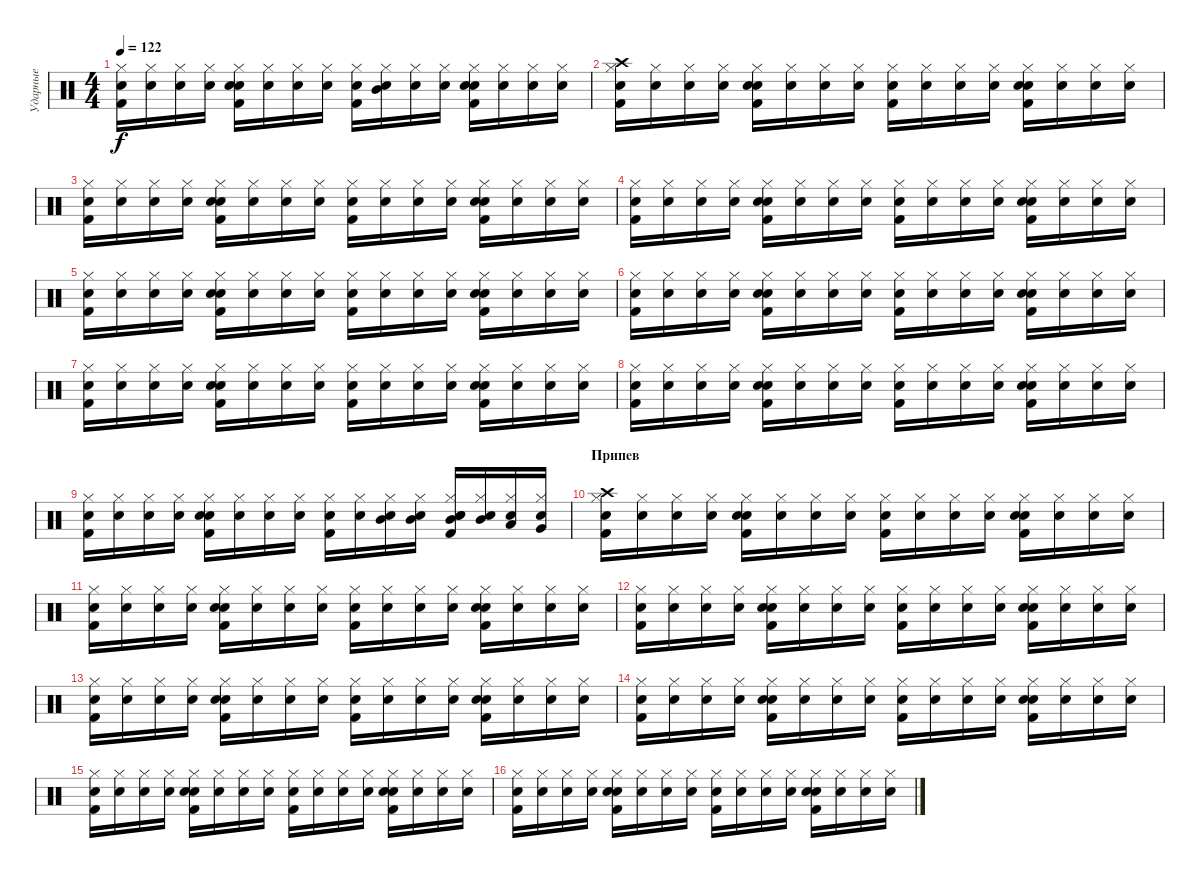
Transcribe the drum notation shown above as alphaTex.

\track ("Ударные" "Ударные") {instrument percussion}
\staff {score}
\articulation defaults
\ts (4 4)
\tempo 122
\clef neutral
\ks c
("Snare (hit)" "Kick (hit) 2" "Hi-Hat (closed)").16{dy f} ("Snare (hit)" "Hi-Hat (closed)").16 ("Snare (hit)" "Hi-Hat (closed)").16 ("Snare (hit)" "Hi-Hat (closed)").16 ("Snare (hit)" "Kick (hit) 2" "Snare (hit) 2" "Hi-Hat (closed)").16 ("Snare (hit)" "Hi-Hat (closed)").16 ("Snare (hit)" "Hi-Hat (closed)").16 ("Snare (hit)" "Hi-Hat (closed)").16 ("Snare (hit)" "Kick (hit) 2" "Hi-Hat (closed)").16 ("Snare (hit)" "Hi-Hat (closed)" "Mid Tom (hit)").16 ("Snare (hit)" "Hi-Hat (closed)").16 ("Snare (hit)" "Hi-Hat (closed)").16 ("Snare (hit)" "Kick (hit) 2" "Snare (hit) 2" "Hi-Hat (closed)").16 ("Snare (hit)" "Hi-Hat (closed)").16 ("Snare (hit)" "Hi-Hat (closed)").16 ("Snare (hit)" "Hi-Hat (closed)").16 |
("Snare (hit)" "Crash high (hit)" "Kick (hit) 2" "Hi-Hat (closed)").16 ("Snare (hit)" "Hi-Hat (closed)").16 ("Snare (hit)" "Hi-Hat (closed)").16 ("Snare (hit)" "Hi-Hat (closed)").16 ("Snare (hit)" "Kick (hit) 2" "Snare (hit) 2" "Hi-Hat (closed)").16 ("Snare (hit)" "Hi-Hat (closed)").16 ("Snare (hit)" "Hi-Hat (closed)").16 ("Snare (hit)" "Hi-Hat (closed)").16 ("Snare (hit)" "Kick (hit) 2" "Hi-Hat (closed)").16 ("Snare (hit)" "Hi-Hat (closed)").16 ("Snare (hit)" "Hi-Hat (closed)").16 ("Snare (hit)" "Hi-Hat (closed)").16 ("Snare (hit)" "Kick (hit) 2" "Snare (hit) 2" "Hi-Hat (closed)").16 ("Snare (hit)" "Hi-Hat (closed)").16 ("Snare (hit)" "Hi-Hat (closed)").16 ("Snare (hit)" "Hi-Hat (closed)").16 |
("Snare (hit)" "Kick (hit) 2" "Hi-Hat (closed)").16 ("Snare (hit)" "Hi-Hat (closed)").16 ("Snare (hit)" "Hi-Hat (closed)").16 ("Snare (hit)" "Hi-Hat (closed)").16 ("Snare (hit)" "Kick (hit) 2" "Snare (hit) 2" "Hi-Hat (closed)").16 ("Snare (hit)" "Hi-Hat (closed)").16 ("Snare (hit)" "Hi-Hat (closed)").16 ("Snare (hit)" "Hi-Hat (closed)").16 ("Snare (hit)" "Kick (hit) 2" "Hi-Hat (closed)").16 ("Snare (hit)" "Hi-Hat (closed)").16 ("Snare (hit)" "Hi-Hat (closed)").16 ("Snare (hit)" "Hi-Hat (closed)").16 ("Snare (hit)" "Kick (hit) 2" "Snare (hit) 2" "Hi-Hat (closed)").16 ("Snare (hit)" "Hi-Hat (closed)").16 ("Snare (hit)" "Hi-Hat (closed)").16 ("Snare (hit)" "Hi-Hat (closed)").16 |
("Snare (hit)" "Kick (hit) 2" "Hi-Hat (closed)").16 ("Snare (hit)" "Hi-Hat (closed)").16 ("Snare (hit)" "Hi-Hat (closed)").16 ("Snare (hit)" "Hi-Hat (closed)").16 ("Snare (hit)" "Kick (hit) 2" "Snare (hit) 2" "Hi-Hat (closed)").16 ("Snare (hit)" "Hi-Hat (closed)").16 ("Snare (hit)" "Hi-Hat (closed)").16 ("Snare (hit)" "Hi-Hat (closed)").16 ("Snare (hit)" "Kick (hit) 2" "Hi-Hat (closed)").16 ("Snare (hit)" "Hi-Hat (closed)").16 ("Snare (hit)" "Hi-Hat (closed)").16 ("Snare (hit)" "Hi-Hat (closed)").16 ("Snare (hit)" "Kick (hit) 2" "Snare (hit) 2" "Hi-Hat (closed)").16 ("Snare (hit)" "Hi-Hat (closed)").16 ("Snare (hit)" "Hi-Hat (closed)").16 ("Snare (hit)" "Hi-Hat (closed)").16 |
("Snare (hit)" "Kick (hit) 2" "Hi-Hat (closed)").16 ("Snare (hit)" "Hi-Hat (closed)").16 ("Snare (hit)" "Hi-Hat (closed)").16 ("Snare (hit)" "Hi-Hat (closed)").16 ("Snare (hit)" "Kick (hit) 2" "Snare (hit) 2" "Hi-Hat (closed)").16 ("Snare (hit)" "Hi-Hat (closed)").16 ("Snare (hit)" "Hi-Hat (closed)").16 ("Snare (hit)" "Hi-Hat (closed)").16 ("Snare (hit)" "Kick (hit) 2" "Hi-Hat (closed)").16 ("Snare (hit)" "Hi-Hat (closed)").16 ("Snare (hit)" "Hi-Hat (closed)").16 ("Snare (hit)" "Hi-Hat (closed)").16 ("Snare (hit)" "Kick (hit) 2" "Snare (hit) 2" "Hi-Hat (closed)").16 ("Snare (hit)" "Hi-Hat (closed)").16 ("Snare (hit)" "Hi-Hat (closed)").16 ("Snare (hit)" "Hi-Hat (closed)").16 |
("Snare (hit)" "Kick (hit) 2" "Hi-Hat (closed)").16 ("Snare (hit)" "Hi-Hat (closed)").16 ("Snare (hit)" "Hi-Hat (closed)").16 ("Snare (hit)" "Hi-Hat (closed)").16 ("Snare (hit)" "Kick (hit) 2" "Snare (hit) 2" "Hi-Hat (closed)").16 ("Snare (hit)" "Hi-Hat (closed)").16 ("Snare (hit)" "Hi-Hat (closed)").16 ("Snare (hit)" "Hi-Hat (closed)").16 ("Snare (hit)" "Kick (hit) 2" "Hi-Hat (closed)").16 ("Snare (hit)" "Hi-Hat (closed)").16 ("Snare (hit)" "Hi-Hat (closed)").16 ("Snare (hit)" "Hi-Hat (closed)").16 ("Snare (hit)" "Kick (hit) 2" "Snare (hit) 2" "Hi-Hat (closed)").16 ("Snare (hit)" "Hi-Hat (closed)").16 ("Snare (hit)" "Hi-Hat (closed)").16 ("Snare (hit)" "Hi-Hat (closed)").16 |
("Snare (hit)" "Kick (hit) 2" "Hi-Hat (closed)").16 ("Snare (hit)" "Hi-Hat (closed)").16 ("Snare (hit)" "Hi-Hat (closed)").16 ("Snare (hit)" "Hi-Hat (closed)").16 ("Snare (hit)" "Kick (hit) 2" "Snare (hit) 2" "Hi-Hat (closed)").16 ("Snare (hit)" "Hi-Hat (closed)").16 ("Snare (hit)" "Hi-Hat (closed)").16 ("Snare (hit)" "Hi-Hat (closed)").16 ("Snare (hit)" "Kick (hit) 2" "Hi-Hat (closed)").16 ("Snare (hit)" "Hi-Hat (closed)").16 ("Snare (hit)" "Hi-Hat (closed)").16 ("Snare (hit)" "Hi-Hat (closed)").16 ("Snare (hit)" "Kick (hit) 2" "Snare (hit) 2" "Hi-Hat (closed)").16 ("Snare (hit)" "Hi-Hat (closed)").16 ("Snare (hit)" "Hi-Hat (closed)").16 ("Snare (hit)" "Hi-Hat (closed)").16 |
("Snare (hit)" "Kick (hit) 2" "Hi-Hat (closed)").16 ("Snare (hit)" "Hi-Hat (closed)").16 ("Snare (hit)" "Hi-Hat (closed)").16 ("Snare (hit)" "Hi-Hat (closed)").16 ("Snare (hit)" "Kick (hit) 2" "Snare (hit) 2" "Hi-Hat (closed)").16 ("Snare (hit)" "Hi-Hat (closed)").16 ("Snare (hit)" "Hi-Hat (closed)").16 ("Snare (hit)" "Hi-Hat (closed)").16 ("Snare (hit)" "Kick (hit) 2" "Hi-Hat (closed)").16 ("Snare (hit)" "Hi-Hat (closed)").16 ("Snare (hit)" "Hi-Hat (closed)").16 ("Snare (hit)" "Hi-Hat (closed)").16 ("Snare (hit)" "Kick (hit) 2" "Snare (hit) 2" "Hi-Hat (closed)").16 ("Snare (hit)" "Hi-Hat (closed)").16 ("Snare (hit)" "Hi-Hat (closed)").16 ("Snare (hit)" "Hi-Hat (closed)").16 |
("Snare (hit)" "Kick (hit) 2" "Hi-Hat (closed)").16 ("Snare (hit)" "Hi-Hat (closed)").16 ("Snare (hit)" "Hi-Hat (closed)").16 ("Snare (hit)" "Hi-Hat (closed)").16 ("Snare (hit)" "Kick (hit) 2" "Snare (hit) 2" "Hi-Hat (closed)").16 ("Snare (hit)" "Hi-Hat (closed)").16 ("Snare (hit)" "Hi-Hat (closed)").16 ("Snare (hit)" "Hi-Hat (closed)").16 ("Snare (hit)" "Kick (hit) 2" "Hi-Hat (closed)").16 ("Snare (hit)" "Hi-Hat (closed)").16 ("Snare (hit)" "Mid Tom (hit)" "Hi-Hat (closed)").16 ("Snare (hit)" "Hi-Hat (closed)" "Mid Tom (hit)").16 ("Snare (hit)" "Kick (hit) 2" "Snare (hit) 2" "Hi-Hat (closed)" "Mid Tom (hit)").16 ("Snare (hit)" "Hi-Hat (closed)" "Mid Tom (hit)").16 ("Snare (hit)" "Hi-Hat (closed)" "Low Tom (hit)").16 ("Snare (hit)" "Hi-Hat (closed)" "Very Low Tom (hit)").16 |
\section ("" "Припев")
("Snare (hit)" "Crash high (hit)" "Kick (hit) 2" "Hi-Hat (closed)").16 ("Snare (hit)" "Hi-Hat (closed)").16 ("Snare (hit)" "Hi-Hat (closed)").16 ("Snare (hit)" "Hi-Hat (closed)").16 ("Snare (hit)" "Kick (hit) 2" "Snare (hit) 2" "Hi-Hat (closed)").16 ("Snare (hit)" "Hi-Hat (closed)").16 ("Snare (hit)" "Hi-Hat (closed)").16 ("Snare (hit)" "Hi-Hat (closed)").16 ("Snare (hit)" "Kick (hit) 2" "Hi-Hat (closed)").16 ("Snare (hit)" "Hi-Hat (closed)").16 ("Snare (hit)" "Hi-Hat (closed)").16 ("Snare (hit)" "Hi-Hat (closed)").16 ("Snare (hit)" "Kick (hit) 2" "Snare (hit) 2" "Hi-Hat (closed)").16 ("Snare (hit)" "Hi-Hat (closed)").16 ("Snare (hit)" "Hi-Hat (closed)").16 ("Snare (hit)" "Hi-Hat (closed)").16 |
("Snare (hit)" "Kick (hit) 2" "Hi-Hat (closed)").16 ("Snare (hit)" "Hi-Hat (closed)").16 ("Snare (hit)" "Hi-Hat (closed)").16 ("Snare (hit)" "Hi-Hat (closed)").16 ("Snare (hit)" "Kick (hit) 2" "Snare (hit) 2" "Hi-Hat (closed)").16 ("Snare (hit)" "Hi-Hat (closed)").16 ("Snare (hit)" "Hi-Hat (closed)").16 ("Snare (hit)" "Hi-Hat (closed)").16 ("Snare (hit)" "Kick (hit) 2" "Hi-Hat (closed)").16 ("Snare (hit)" "Hi-Hat (closed)").16 ("Snare (hit)" "Hi-Hat (closed)").16 ("Snare (hit)" "Hi-Hat (closed)").16 ("Snare (hit)" "Kick (hit) 2" "Snare (hit) 2" "Hi-Hat (closed)").16 ("Snare (hit)" "Hi-Hat (closed)").16 ("Snare (hit)" "Hi-Hat (closed)").16 ("Snare (hit)" "Hi-Hat (closed)").16 |
("Snare (hit)" "Kick (hit) 2" "Hi-Hat (closed)").16 ("Snare (hit)" "Hi-Hat (closed)").16 ("Snare (hit)" "Hi-Hat (closed)").16 ("Snare (hit)" "Hi-Hat (closed)").16 ("Snare (hit)" "Kick (hit) 2" "Snare (hit) 2" "Hi-Hat (closed)").16 ("Snare (hit)" "Hi-Hat (closed)").16 ("Snare (hit)" "Hi-Hat (closed)").16 ("Snare (hit)" "Hi-Hat (closed)").16 ("Snare (hit)" "Kick (hit) 2" "Hi-Hat (closed)").16 ("Snare (hit)" "Hi-Hat (closed)").16 ("Snare (hit)" "Hi-Hat (closed)").16 ("Snare (hit)" "Hi-Hat (closed)").16 ("Snare (hit)" "Kick (hit) 2" "Snare (hit) 2" "Hi-Hat (closed)").16 ("Snare (hit)" "Hi-Hat (closed)").16 ("Snare (hit)" "Hi-Hat (closed)").16 ("Snare (hit)" "Hi-Hat (closed)").16 |
("Snare (hit)" "Kick (hit) 2" "Hi-Hat (closed)").16 ("Snare (hit)" "Hi-Hat (closed)").16 ("Snare (hit)" "Hi-Hat (closed)").16 ("Snare (hit)" "Hi-Hat (closed)").16 ("Snare (hit)" "Kick (hit) 2" "Snare (hit) 2" "Hi-Hat (closed)").16 ("Snare (hit)" "Hi-Hat (closed)").16 ("Snare (hit)" "Hi-Hat (closed)").16 ("Snare (hit)" "Hi-Hat (closed)").16 ("Snare (hit)" "Kick (hit) 2" "Hi-Hat (closed)").16 ("Snare (hit)" "Hi-Hat (closed)").16 ("Snare (hit)" "Hi-Hat (closed)").16 ("Snare (hit)" "Hi-Hat (closed)").16 ("Snare (hit)" "Kick (hit) 2" "Snare (hit) 2" "Hi-Hat (closed)").16 ("Snare (hit)" "Hi-Hat (closed)").16 ("Snare (hit)" "Hi-Hat (closed)").16 ("Snare (hit)" "Hi-Hat (closed)").16 |
("Snare (hit)" "Kick (hit) 2" "Hi-Hat (closed)").16 ("Snare (hit)" "Hi-Hat (closed)").16 ("Snare (hit)" "Hi-Hat (closed)").16 ("Snare (hit)" "Hi-Hat (closed)").16 ("Snare (hit)" "Kick (hit) 2" "Snare (hit) 2" "Hi-Hat (closed)").16 ("Snare (hit)" "Hi-Hat (closed)").16 ("Snare (hit)" "Hi-Hat (closed)").16 ("Snare (hit)" "Hi-Hat (closed)").16 ("Snare (hit)" "Kick (hit) 2" "Hi-Hat (closed)").16 ("Snare (hit)" "Hi-Hat (closed)").16 ("Snare (hit)" "Hi-Hat (closed)").16 ("Snare (hit)" "Hi-Hat (closed)").16 ("Snare (hit)" "Kick (hit) 2" "Snare (hit) 2" "Hi-Hat (closed)").16 ("Snare (hit)" "Hi-Hat (closed)").16 ("Snare (hit)" "Hi-Hat (closed)").16 ("Snare (hit)" "Hi-Hat (closed)").16 |
("Snare (hit)" "Kick (hit) 2" "Hi-Hat (closed)").16 ("Snare (hit)" "Hi-Hat (closed)").16 ("Snare (hit)" "Hi-Hat (closed)").16 ("Snare (hit)" "Hi-Hat (closed)").16 ("Snare (hit)" "Kick (hit) 2" "Snare (hit) 2" "Hi-Hat (closed)").16 ("Snare (hit)" "Hi-Hat (closed)").16 ("Snare (hit)" "Hi-Hat (closed)").16 ("Snare (hit)" "Hi-Hat (closed)").16 ("Snare (hit)" "Kick (hit) 2" "Hi-Hat (closed)").16 ("Snare (hit)" "Hi-Hat (closed)").16 ("Snare (hit)" "Hi-Hat (closed)").16 ("Snare (hit)" "Hi-Hat (closed)").16 ("Snare (hit)" "Kick (hit) 2" "Snare (hit) 2" "Hi-Hat (closed)").16 ("Snare (hit)" "Hi-Hat (closed)").16 ("Snare (hit)" "Hi-Hat (closed)").16 ("Snare (hit)" "Hi-Hat (closed)").16 |
("Snare (hit)" "Kick (hit) 2" "Hi-Hat (closed)").16 ("Snare (hit)" "Hi-Hat (closed)").16 ("Snare (hit)" "Hi-Hat (closed)").16 ("Snare (hit)" "Hi-Hat (closed)").16 ("Snare (hit)" "Kick (hit) 2" "Snare (hit) 2" "Hi-Hat (closed)").16 ("Snare (hit)" "Hi-Hat (closed)").16 ("Snare (hit)" "Hi-Hat (closed)").16 ("Snare (hit)" "Hi-Hat (closed)").16 ("Snare (hit)" "Kick (hit) 2" "Hi-Hat (closed)").16 ("Snare (hit)" "Hi-Hat (closed)").16 ("Snare (hit)" "Hi-Hat (closed)").16 ("Snare (hit)" "Hi-Hat (closed)").16 ("Snare (hit)" "Kick (hit) 2" "Snare (hit) 2" "Hi-Hat (closed)").16 ("Snare (hit)" "Hi-Hat (closed)").16 ("Snare (hit)" "Hi-Hat (closed)").16 ("Snare (hit)" "Hi-Hat (closed)").16
